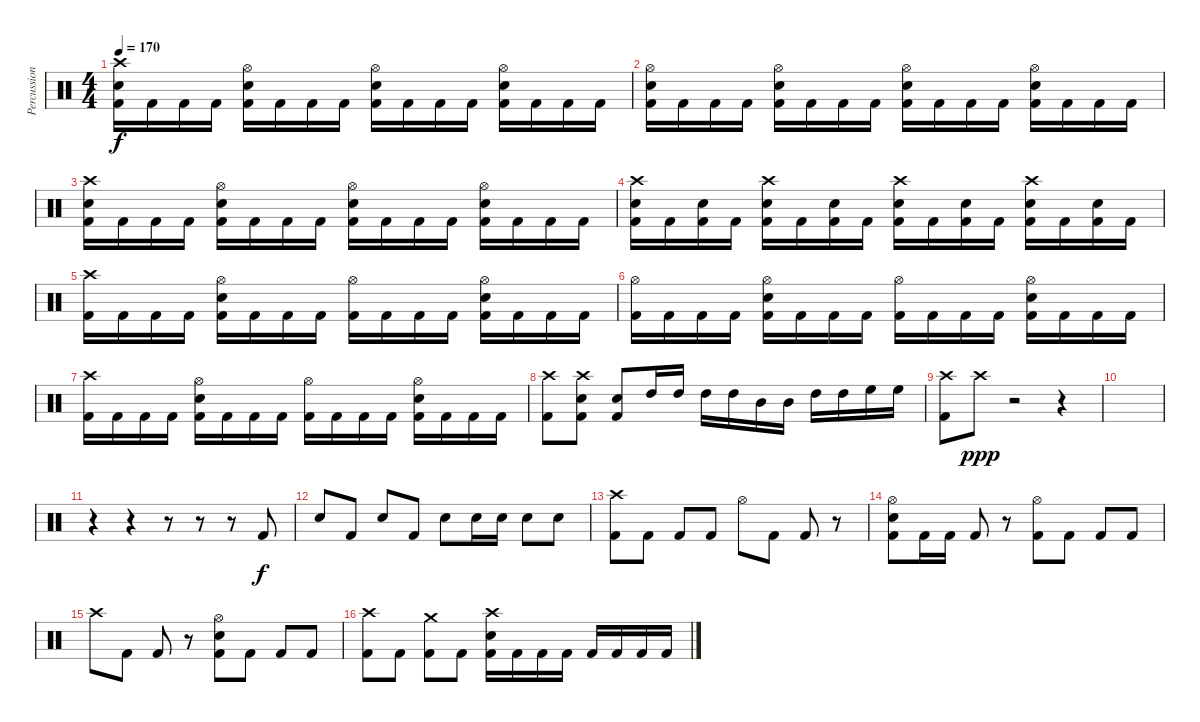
\track ("Percussion" "Percussion") {instrument percussion}
\staff {score}
\articulation defaults
\ts (4 4)
\tempo 170
\clef neutral
\ks c
("Crash high (hit)" "Snare (hit) 2" "Kick (hit) 2").16{dy f} "Kick (hit) 2".16 "Kick (hit) 2".16 "Kick (hit) 2".16 ("Hi-Hat (open)" "Snare (hit) 2" "Kick (hit) 2").16 "Kick (hit) 2".16 "Kick (hit) 2".16 "Kick (hit) 2".16 ("Hi-Hat (open)" "Snare (hit) 2" "Kick (hit) 2").16 "Kick (hit) 2".16 "Kick (hit) 2".16 "Kick (hit) 2".16 ("Hi-Hat (open)" "Snare (hit) 2" "Kick (hit) 2").16 "Kick (hit) 2".16 "Kick (hit) 2".16 "Kick (hit) 2".16 |
("Hi-Hat (open)" "Snare (hit) 2" "Kick (hit) 2").16 "Kick (hit) 2".16 "Kick (hit) 2".16 "Kick (hit) 2".16 ("Hi-Hat (open)" "Snare (hit) 2" "Kick (hit) 2").16 "Kick (hit) 2".16 "Kick (hit) 2".16 "Kick (hit) 2".16 ("Hi-Hat (open)" "Snare (hit) 2" "Kick (hit) 2").16 "Kick (hit) 2".16 "Kick (hit) 2".16 "Kick (hit) 2".16 ("Hi-Hat (open)" "Snare (hit) 2" "Kick (hit) 2").16 "Kick (hit) 2".16 "Kick (hit) 2".16 "Kick (hit) 2".16 |
("Crash high (hit)" "Snare (hit) 2" "Kick (hit) 2").16 "Kick (hit) 2".16 "Kick (hit) 2".16 "Kick (hit) 2".16 ("Hi-Hat (open)" "Snare (hit) 2" "Kick (hit) 2").16 "Kick (hit) 2".16 "Kick (hit) 2".16 "Kick (hit) 2".16 ("Hi-Hat (open)" "Snare (hit) 2" "Kick (hit) 2").16 "Kick (hit) 2".16 "Kick (hit) 2".16 "Kick (hit) 2".16 ("Hi-Hat (open)" "Snare (hit) 2" "Kick (hit) 2").16 "Kick (hit) 2".16 "Kick (hit) 2".16 "Kick (hit) 2".16 |
("Crash high (hit)" "Snare (hit) 2" "Kick (hit) 2").16 "Kick (hit) 2".16 ("Snare (hit) 2" "Kick (hit) 2").16 "Kick (hit) 2".16 ("Crash high (hit)" "Snare (hit) 2" "Kick (hit) 2").16 "Kick (hit) 2".16 ("Snare (hit) 2" "Kick (hit) 2").16 "Kick (hit) 2".16 ("Crash high (hit)" "Snare (hit) 2" "Kick (hit) 2").16 "Kick (hit) 2".16 ("Snare (hit) 2" "Kick (hit) 2").16 "Kick (hit) 2".16 ("Crash high (hit)" "Snare (hit) 2" "Kick (hit) 2").16 "Kick (hit) 2".16 ("Snare (hit) 2" "Kick (hit) 2").16 "Kick (hit) 2".16 |
("Crash high (hit)" "Kick (hit) 2").16 "Kick (hit) 2".16 "Kick (hit) 2".16 "Kick (hit) 2".16 ("Hi-Hat (open)" "Snare (hit) 2" "Kick (hit) 2").16 "Kick (hit) 2".16 "Kick (hit) 2".16 "Kick (hit) 2".16 ("Hi-Hat (open)" "Kick (hit) 2").16 "Kick (hit) 2".16 "Kick (hit) 2".16 "Kick (hit) 2".16 ("Hi-Hat (open)" "Snare (hit) 2" "Kick (hit) 2").16 "Kick (hit) 2".16 "Kick (hit) 2".16 "Kick (hit) 2".16 |
("Hi-Hat (open)" "Kick (hit) 2").16 "Kick (hit) 2".16 "Kick (hit) 2".16 "Kick (hit) 2".16 ("Hi-Hat (open)" "Snare (hit) 2" "Kick (hit) 2").16 "Kick (hit) 2".16 "Kick (hit) 2".16 "Kick (hit) 2".16 ("Hi-Hat (open)" "Kick (hit) 2").16 "Kick (hit) 2".16 "Kick (hit) 2".16 "Kick (hit) 2".16 ("Hi-Hat (open)" "Snare (hit) 2" "Kick (hit) 2").16 "Kick (hit) 2".16 "Kick (hit) 2".16 "Kick (hit) 2".16 |
("Crash high (hit)" "Kick (hit) 2").16 "Kick (hit) 2".16 "Kick (hit) 2".16 "Kick (hit) 2".16 ("Hi-Hat (open)" "Snare (hit) 2" "Kick (hit) 2").16 "Kick (hit) 2".16 "Kick (hit) 2".16 "Kick (hit) 2".16 ("Hi-Hat (open)" "Kick (hit) 2").16 "Kick (hit) 2".16 "Kick (hit) 2".16 "Kick (hit) 2".16 ("Hi-Hat (open)" "Snare (hit) 2" "Kick (hit) 2").16 "Kick (hit) 2".16 "Kick (hit) 2".16 "Kick (hit) 2".16 |
("Crash high (hit)" "Kick (hit) 2").8 ("Crash high (hit)" "Snare (hit) 2" "Kick (hit) 2").8 ("Snare (hit) 2" "Kick (hit) 2").8 "High Tom (hit)".16 "High Tom (hit)".16 "High Tom (hit)".16 "High Tom (hit)".16 "Mid Tom (hit)".16 "Mid Tom (hit)".16 "High Tom (hit)".16 "High Tom (hit)".16 "High Floor Tom (hit)".16 "High Floor Tom (hit)".16 |
("Crash high (hit)" "Kick (hit) 2").8 "Crash high (hit)".8{dy ppp} r.2 r.4 |
|
r.4 r.4 r.8 r.8 r.8 "Kick (hit) 2".8{dy f} |
"Snare (hit) 2".8 "Kick (hit) 2".8 "Snare (hit) 2".8 "Kick (hit) 2".8 "Snare (hit) 2".8 "Snare (hit) 2".16 "Snare (hit) 2".16 "Snare (hit) 2".8 "Snare (hit) 2".8 |
("Crash high (hit)" "Kick (hit) 2").8 "Kick (hit) 2".8 "Kick (hit) 2".8 "Kick (hit) 2".8 "Hi-Hat (open)".8 "Kick (hit) 2".8 "Kick (hit) 2".8 r.8 |
("Hi-Hat (open)" "Snare (hit) 2" "Kick (hit) 2").8 "Kick (hit) 2".16 "Kick (hit) 2".16 "Kick (hit) 2".8 r.8 ("Hi-Hat (open)" "Kick (hit) 2").8 "Kick (hit) 2".8 "Kick (hit) 2".8 "Kick (hit) 2".8 |
"Crash high (hit)".8 "Kick (hit) 2".8 "Kick (hit) 2".8 r.8 ("Hi-Hat (open)" "Snare (hit) 2" "Kick (hit) 2").8 "Kick (hit) 2".8 "Kick (hit) 2".8 "Kick (hit) 2".8 |
("Crash high (hit)" "Kick (hit) 2").8 "Kick (hit) 2".8 ("Crash medium (hit)" "Kick (hit) 2").8 "Kick (hit) 2".8 ("Crash high (hit)" "Snare (hit) 2" "Kick (hit) 2").16 "Kick (hit) 2".16 "Kick (hit) 2".16 "Kick (hit) 2".16 "Kick (hit) 2".16 "Kick (hit) 2".16 "Kick (hit) 2".16 "Kick (hit) 2".16
